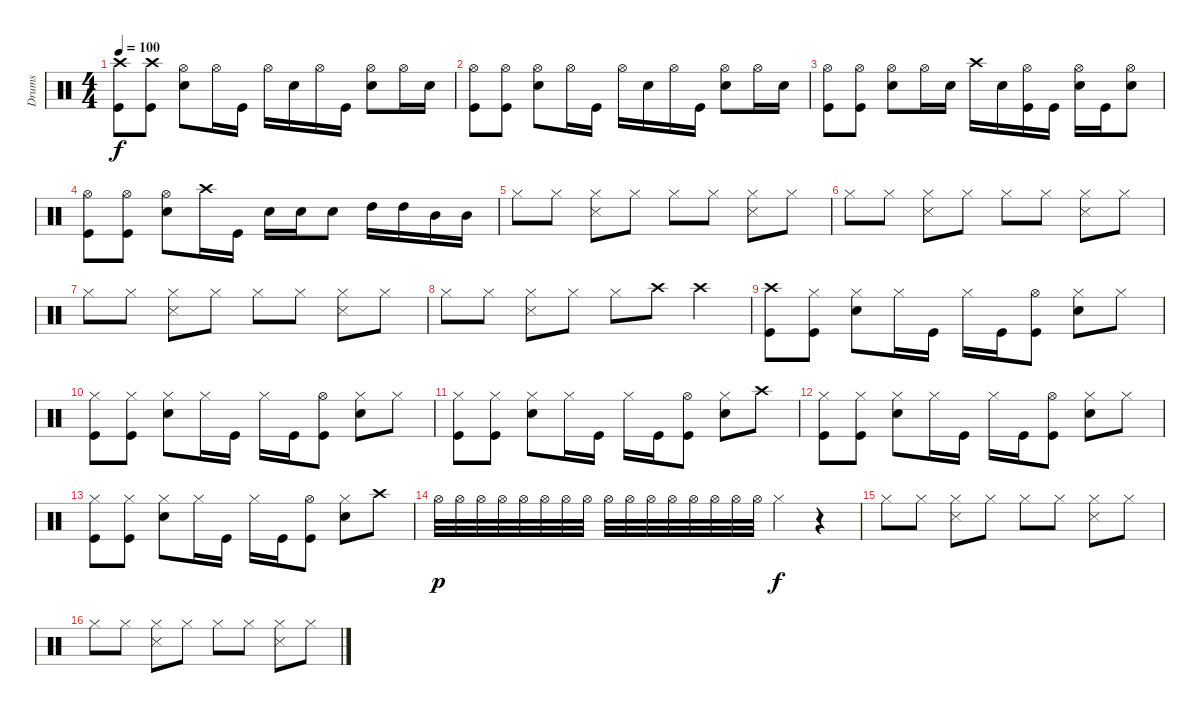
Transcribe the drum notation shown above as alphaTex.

\track ("Drums" "Drums") {instrument percussion}
\staff {score}
\articulation defaults
\ts (4 4)
\tempo 100
\clef neutral
\ks c
("Crash high (hit)" "Kick (hit)").8{dy f} ("Crash high (hit)" "Kick (hit)").8 ("Hi-Hat (open)" "Snare (hit) 2").8 "Hi-Hat (open)".16 "Kick (hit)".16 "Hi-Hat (open)".16 "Snare (hit) 2".16 "Hi-Hat (open)".16 "Kick (hit)".16 ("Hi-Hat (open)" "Snare (hit) 2").8 "Hi-Hat (open)".16 "Snare (hit) 2".16 |
("Hi-Hat (open)" "Kick (hit)").8 ("Hi-Hat (open)" "Kick (hit)").8 ("Hi-Hat (open)" "Snare (hit) 2").8 "Hi-Hat (open)".16 "Kick (hit)".16 "Hi-Hat (open)".16 "Snare (hit) 2".16 "Hi-Hat (open)".16 "Kick (hit)".16 ("Hi-Hat (open)" "Snare (hit) 2").8 "Hi-Hat (open)".16 "Snare (hit) 2".16 |
("Hi-Hat (open)" "Kick (hit)").8 ("Hi-Hat (open)" "Kick (hit)").8 ("Hi-Hat (open)" "Snare (hit) 2").8 "Hi-Hat (open)".16 "Snare (hit) 2".16 "Crash high (hit)".16 "Snare (hit) 2".16 ("Hi-Hat (open)" "Kick (hit)").16 "Kick (hit)".16 ("Hi-Hat (open)" "Snare (hit) 2").16 "Kick (hit)".16 ("Hi-Hat (open)" "Snare (hit) 2").8 |
("Hi-Hat (open)" "Kick (hit)").8 ("Hi-Hat (open)" "Kick (hit)").8 ("Hi-Hat (open)" "Snare (hit) 2").8 "Crash high (hit)".16 "Kick (hit)".16 "Snare (hit) 2".16 "Snare (hit) 2".16 "Snare (hit) 2".8 "High Tom (hit)".16 "High Tom (hit)".16 "Mid Tom (hit)".16 "Mid Tom (hit)".16 |
"Hi-Hat (closed)".8 "Hi-Hat (closed)".8 ("Hi-Hat (closed)" "Snare (side stick) 3").8 "Hi-Hat (closed)".8 "Hi-Hat (closed)".8 "Hi-Hat (closed)".8 ("Hi-Hat (closed)" "Snare (side stick) 3").8 "Hi-Hat (closed)".8 |
"Hi-Hat (closed)".8 "Hi-Hat (closed)".8 ("Hi-Hat (closed)" "Snare (side stick) 3").8 "Hi-Hat (closed)".8 "Hi-Hat (closed)".8 "Hi-Hat (closed)".8 ("Hi-Hat (closed)" "Snare (side stick) 3").8 "Hi-Hat (closed)".8 |
"Hi-Hat (closed)".8 "Hi-Hat (closed)".8 ("Hi-Hat (closed)" "Snare (side stick) 3").8 "Hi-Hat (closed)".8 "Hi-Hat (closed)".8 "Hi-Hat (closed)".8 ("Hi-Hat (closed)" "Snare (side stick) 3").8 "Hi-Hat (closed)".8 |
"Hi-Hat (closed)".8 "Hi-Hat (closed)".8 ("Hi-Hat (closed)" "Snare (side stick) 3").8 "Hi-Hat (closed)".8 "Hi-Hat (closed)".8 "Crash high (hit)".8 "Crash high (hit)".4 |
("Crash high (hit)" "Kick (hit)").8 ("Hi-Hat (closed)" "Kick (hit)").8 ("Hi-Hat (closed)" "Snare (hit) 2").8 "Hi-Hat (closed)".16 "Kick (hit)".16 "Hi-Hat (closed)".16 "Kick (hit)".16 ("Hi-Hat (open)" "Kick (hit)").8 ("Hi-Hat (closed)" "Snare (hit) 2").8 "Hi-Hat (closed)".8 |
("Hi-Hat (closed)" "Kick (hit)").8 ("Hi-Hat (closed)" "Kick (hit)").8 ("Hi-Hat (closed)" "Snare (hit) 2").8 "Hi-Hat (closed)".16 "Kick (hit)".16 "Hi-Hat (closed)".16 "Kick (hit)".16 ("Hi-Hat (open)" "Kick (hit)").8 ("Hi-Hat (closed)" "Snare (hit) 2").8 "Hi-Hat (closed)".8 |
("Hi-Hat (closed)" "Kick (hit)").8 ("Hi-Hat (closed)" "Kick (hit)").8 ("Hi-Hat (closed)" "Snare (hit) 2").8 "Hi-Hat (closed)".16 "Kick (hit)".16 "Hi-Hat (closed)".16 "Kick (hit)".16 ("Hi-Hat (open)" "Kick (hit)").8 ("Hi-Hat (closed)" "Snare (hit) 2").8 "Crash high (hit)".8 |
("Hi-Hat (closed)" "Kick (hit)").8 ("Hi-Hat (closed)" "Kick (hit)").8 ("Hi-Hat (closed)" "Snare (hit) 2").8 "Hi-Hat (closed)".16 "Kick (hit)".16 "Hi-Hat (closed)".16 "Kick (hit)".16 ("Hi-Hat (open)" "Kick (hit)").8 ("Hi-Hat (closed)" "Snare (hit) 2").8 "Hi-Hat (closed)".8 |
("Hi-Hat (closed)" "Kick (hit)").8 ("Hi-Hat (closed)" "Kick (hit)").8 ("Hi-Hat (closed)" "Snare (hit) 2").8 "Hi-Hat (closed)".16 "Kick (hit)".16 "Hi-Hat (closed)".16 "Kick (hit)".16 ("Hi-Hat (open)" "Kick (hit)").8 ("Hi-Hat (closed)" "Snare (hit) 2").8 "Crash high (hit)".8 |
"Hi-Hat (open)".32{dy p} "Hi-Hat (open)".32 "Hi-Hat (open)".32 "Hi-Hat (open)".32 "Hi-Hat (open)".32 "Hi-Hat (open)".32 "Hi-Hat (open)".32 "Hi-Hat (open)".32 "Hi-Hat (open)".32 "Hi-Hat (open)".32 "Hi-Hat (open)".32 "Hi-Hat (open)".32 "Hi-Hat (open)".32 "Hi-Hat (open)".32 "Hi-Hat (open)".32 "Hi-Hat (open)".32 "Hi-Hat (closed)".4{dy f} r.4 |
"Hi-Hat (closed)".8 "Hi-Hat (closed)".8 ("Hi-Hat (closed)" "Snare (side stick) 3").8 "Hi-Hat (closed)".8 "Hi-Hat (closed)".8 "Hi-Hat (closed)".8 ("Hi-Hat (closed)" "Snare (side stick) 3").8 "Hi-Hat (closed)".8 |
"Hi-Hat (closed)".8 "Hi-Hat (closed)".8 ("Hi-Hat (closed)" "Snare (side stick) 3").8 "Hi-Hat (closed)".8 "Hi-Hat (closed)".8 "Hi-Hat (closed)".8 ("Hi-Hat (closed)" "Snare (side stick) 3").8 "Hi-Hat (closed)".8
